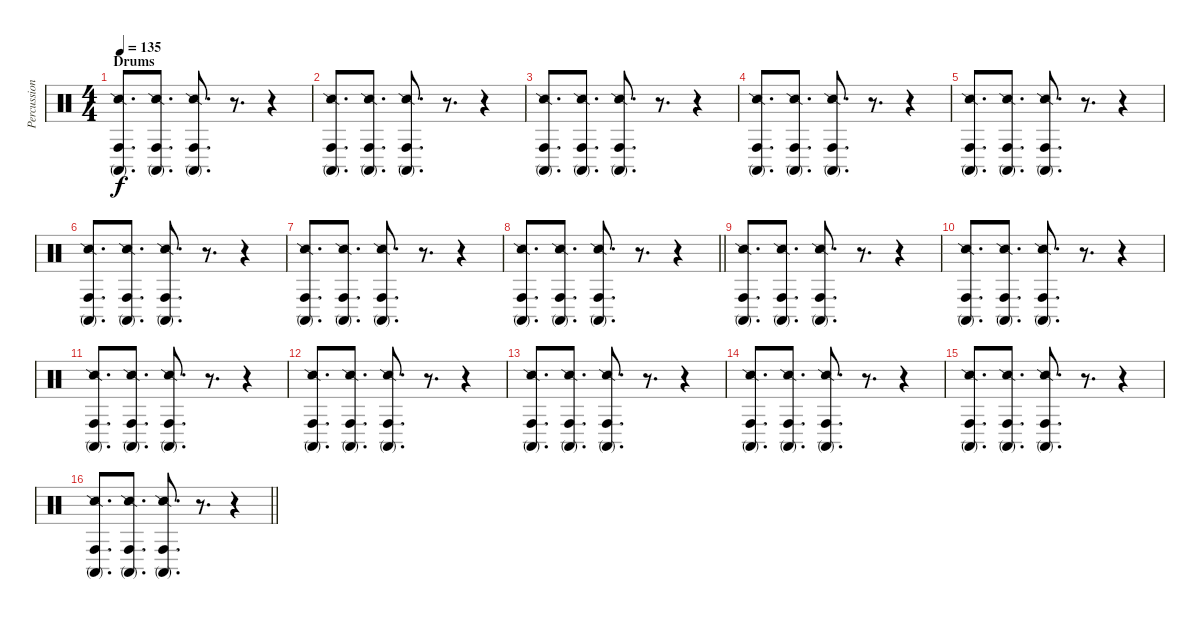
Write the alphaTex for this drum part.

\track ("Percussion FX" "Percussion") {instrument percussion}
\staff {score}
\articulation defaults
\ts (4 4)
\section ("" "Drums")
\tempo 135
\clef neutral
\ks c
("Snare (side stick) 2" "Conga high (mute)" "Conga high (hit)").8{d dy f} ("Snare (side stick) 2" "Conga high (mute)" "Conga high (hit)").8{d} ("Snare (side stick) 2" "Conga high (mute)" "Conga high (hit)").8{d} r.8{d} r.4 |
("Snare (side stick) 2" "Conga high (mute)" "Conga high (hit)").8{d} ("Snare (side stick) 2" "Conga high (mute)" "Conga high (hit)").8{d} ("Snare (side stick) 2" "Conga high (mute)" "Conga high (hit)").8{d} r.8{d} r.4 |
("Snare (side stick) 2" "Conga high (mute)" "Conga high (hit)").8{d} ("Snare (side stick) 2" "Conga high (mute)" "Conga high (hit)").8{d} ("Snare (side stick) 2" "Conga high (mute)" "Conga high (hit)").8{d} r.8{d} r.4 |
("Snare (side stick) 2" "Conga high (mute)" "Conga high (hit)").8{d} ("Snare (side stick) 2" "Conga high (mute)" "Conga high (hit)").8{d} ("Snare (side stick) 2" "Conga high (mute)" "Conga high (hit)").8{d} r.8{d} r.4 |
("Snare (side stick) 2" "Conga high (mute)" "Conga high (hit)").8{d} ("Snare (side stick) 2" "Conga high (mute)" "Conga high (hit)").8{d} ("Snare (side stick) 2" "Conga high (mute)" "Conga high (hit)").8{d} r.8{d} r.4 |
("Snare (side stick) 2" "Conga high (mute)" "Conga high (hit)").8{d} ("Snare (side stick) 2" "Conga high (mute)" "Conga high (hit)").8{d} ("Snare (side stick) 2" "Conga high (mute)" "Conga high (hit)").8{d} r.8{d} r.4 |
("Snare (side stick) 2" "Conga high (mute)" "Conga high (hit)").8{d} ("Snare (side stick) 2" "Conga high (mute)" "Conga high (hit)").8{d} ("Snare (side stick) 2" "Conga high (mute)" "Conga high (hit)").8{d} r.8{d} r.4 |
\barLineRight lightlight
("Snare (side stick) 2" "Conga high (mute)" "Conga high (hit)").8{d} ("Snare (side stick) 2" "Conga high (mute)" "Conga high (hit)").8{d} ("Snare (side stick) 2" "Conga high (mute)" "Conga high (hit)").8{d} r.8{d} r.4 |
("Snare (side stick) 2" "Conga high (mute)" "Conga high (hit)").8{d} ("Snare (side stick) 2" "Conga high (mute)" "Conga high (hit)").8{d} ("Snare (side stick) 2" "Conga high (mute)" "Conga high (hit)").8{d} r.8{d} r.4 |
("Snare (side stick) 2" "Conga high (mute)" "Conga high (hit)").8{d} ("Snare (side stick) 2" "Conga high (mute)" "Conga high (hit)").8{d} ("Snare (side stick) 2" "Conga high (mute)" "Conga high (hit)").8{d} r.8{d} r.4 |
("Snare (side stick) 2" "Conga high (mute)" "Conga high (hit)").8{d} ("Snare (side stick) 2" "Conga high (mute)" "Conga high (hit)").8{d} ("Snare (side stick) 2" "Conga high (mute)" "Conga high (hit)").8{d} r.8{d} r.4 |
("Snare (side stick) 2" "Conga high (mute)" "Conga high (hit)").8{d} ("Snare (side stick) 2" "Conga high (mute)" "Conga high (hit)").8{d} ("Snare (side stick) 2" "Conga high (mute)" "Conga high (hit)").8{d} r.8{d} r.4 |
("Snare (side stick) 2" "Conga high (mute)" "Conga high (hit)").8{d} ("Snare (side stick) 2" "Conga high (mute)" "Conga high (hit)").8{d} ("Snare (side stick) 2" "Conga high (mute)" "Conga high (hit)").8{d} r.8{d} r.4 |
("Snare (side stick) 2" "Conga high (mute)" "Conga high (hit)").8{d} ("Snare (side stick) 2" "Conga high (mute)" "Conga high (hit)").8{d} ("Snare (side stick) 2" "Conga high (mute)" "Conga high (hit)").8{d} r.8{d} r.4 |
("Snare (side stick) 2" "Conga high (mute)" "Conga high (hit)").8{d} ("Snare (side stick) 2" "Conga high (mute)" "Conga high (hit)").8{d} ("Snare (side stick) 2" "Conga high (mute)" "Conga high (hit)").8{d} r.8{d} r.4 |
\barLineRight lightlight
("Snare (side stick) 2" "Conga high (mute)" "Conga high (hit)").8{d} ("Snare (side stick) 2" "Conga high (mute)" "Conga high (hit)").8{d} ("Snare (side stick) 2" "Conga high (mute)" "Conga high (hit)").8{d} r.8{d} r.4
